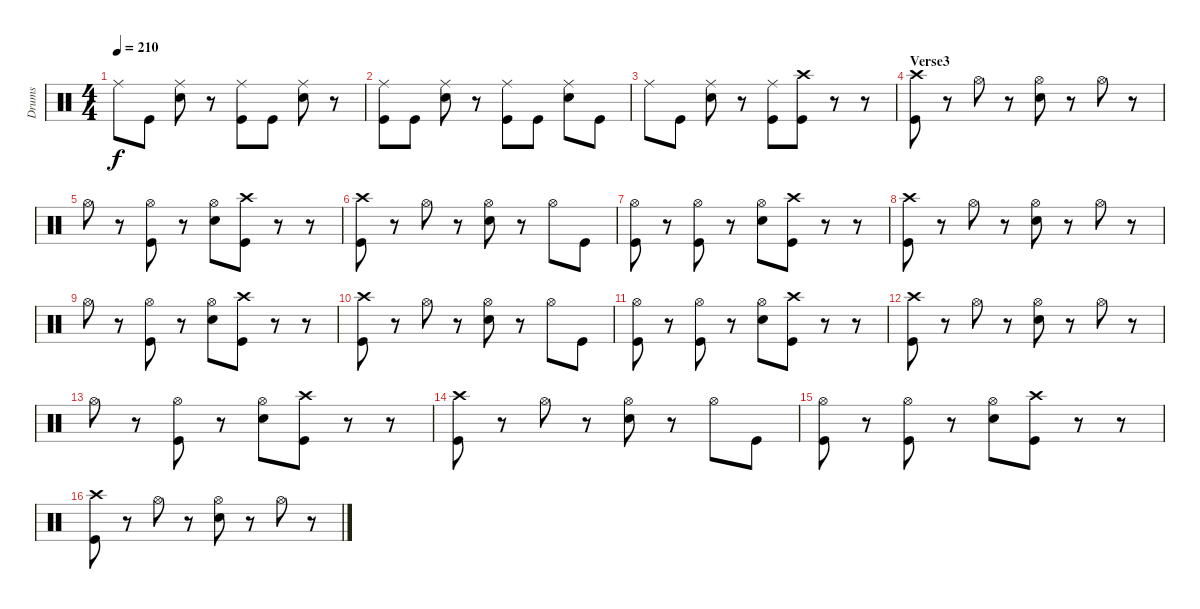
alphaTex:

\track ("Drums" "Drums") {instrument percussion}
\staff {score}
\articulation defaults
\ts (4 4)
\tempo 210
\clef neutral
\ks c "Ride (middle)".8{dy f} "Kick (hit)".8
("Ride (middle)" "Snare (hit) 2").8 r.8 ("Ride (middle)" "Kick (hit)").8 "Kick (hit)".8 ("Ride (middle)" "Snare (hit) 2").8 r.8 |
("Ride (middle)" "Kick (hit)").8 "Kick (hit)".8 ("Ride (middle)" "Snare (hit) 2").8 r.8 ("Ride (middle)" "Kick (hit)").8 "Kick (hit)".8 ("Ride (middle)" "Snare (hit) 2").8 "Kick (hit)".8 |
"Ride (middle)".8 "Kick (hit)".8 ("Ride (middle)" "Snare (hit) 2").8 r.8 ("Ride (middle)" "Kick (hit)").8 ("Crash high (hit)" "Kick (hit)").8 r.8 r.8 |
\section ("" "Verse3")
("Crash high (hit)" "Kick (hit)").8 r.8 "Hi-Hat (open)".8 r.8 ("Hi-Hat (open)" "Snare (hit) 2").8 r.8 "Hi-Hat (open)".8 r.8 |
"Hi-Hat (open)".8 r.8 ("Hi-Hat (open)" "Kick (hit)").8 r.8 ("Hi-Hat (open)" "Snare (hit) 2").8 ("Crash high (hit)" "Kick (hit)").8 r.8 r.8 |
("Crash high (hit)" "Kick (hit)").8 r.8 "Hi-Hat (open)".8 r.8 ("Hi-Hat (open)" "Snare (hit) 2").8 r.8 "Hi-Hat (open)".8 "Kick (hit)".8 |
("Hi-Hat (open)" "Kick (hit)").8 r.8 ("Hi-Hat (open)" "Kick (hit)").8 r.8 ("Hi-Hat (open)" "Snare (hit) 2").8 ("Crash high (hit)" "Kick (hit)").8 r.8 r.8 |
("Crash high (hit)" "Kick (hit)").8 r.8 "Hi-Hat (open)".8 r.8 ("Hi-Hat (open)" "Snare (hit) 2").8 r.8 "Hi-Hat (open)".8 r.8 |
"Hi-Hat (open)".8 r.8 ("Hi-Hat (open)" "Kick (hit)").8 r.8 ("Hi-Hat (open)" "Snare (hit) 2").8 ("Crash high (hit)" "Kick (hit)").8 r.8 r.8 |
("Crash high (hit)" "Kick (hit)").8 r.8 "Hi-Hat (open)".8 r.8 ("Hi-Hat (open)" "Snare (hit) 2").8 r.8 "Hi-Hat (open)".8 "Kick (hit)".8 |
("Hi-Hat (open)" "Kick (hit)").8 r.8 ("Hi-Hat (open)" "Kick (hit)").8 r.8 ("Hi-Hat (open)" "Snare (hit) 2").8 ("Crash high (hit)" "Kick (hit)").8 r.8 r.8 |
("Crash high (hit)" "Kick (hit)").8 r.8 "Hi-Hat (open)".8 r.8 ("Hi-Hat (open)" "Snare (hit) 2").8 r.8 "Hi-Hat (open)".8 r.8 |
"Hi-Hat (open)".8 r.8 ("Hi-Hat (open)" "Kick (hit)").8 r.8 ("Hi-Hat (open)" "Snare (hit) 2").8 ("Crash high (hit)" "Kick (hit)").8 r.8 r.8 |
("Crash high (hit)" "Kick (hit)").8 r.8 "Hi-Hat (open)".8 r.8 ("Hi-Hat (open)" "Snare (hit) 2").8 r.8 "Hi-Hat (open)".8 "Kick (hit)".8 |
("Hi-Hat (open)" "Kick (hit)").8 r.8 ("Hi-Hat (open)" "Kick (hit)").8 r.8 ("Hi-Hat (open)" "Snare (hit) 2").8 ("Crash high (hit)" "Kick (hit)").8 r.8 r.8 |
("Crash high (hit)" "Kick (hit)").8 r.8 "Hi-Hat (open)".8 r.8 ("Hi-Hat (open)" "Snare (hit) 2").8 r.8 "Hi-Hat (open)".8 r.8
